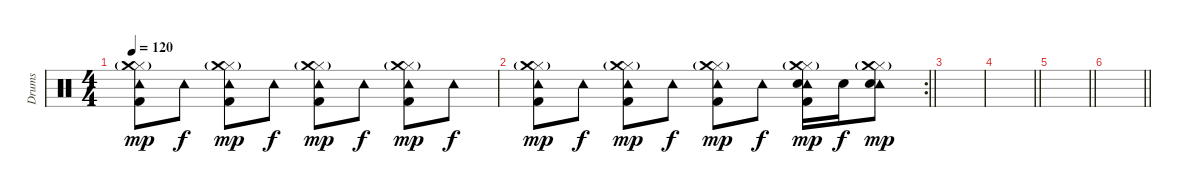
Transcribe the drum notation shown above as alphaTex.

\track ("Drums" "Drums") {instrument percussion}
\staff {score}
\articulation defaults
\ts (4 4)
\tempo 120
\clef neutral
\ks c
("Hi-Hat (closed)" "Tambourine (hit)" "Crash medium (hit)"{g} "Kick (hit) 2").8{dy mp} "Tambourine (hit)".8{dy f} ("Hi-Hat (closed)" "Tambourine (hit)" "Crash medium (hit)"{g} "Kick (hit) 2").8{dy mp} "Tambourine (hit)".8{dy f} ("Hi-Hat (closed)" "Tambourine (hit)" "Crash medium (hit)"{g} "Kick (hit) 2").8{dy mp} "Tambourine (hit)".8{dy f} ("Hi-Hat (closed)" "Tambourine (hit)" "Crash medium (hit)"{g} "Kick (hit) 2").8{dy mp} "Tambourine (hit)".8{dy f} |
\rc 2
\barLineRight lightlight
("Hi-Hat (closed)" "Tambourine (hit)" "Crash medium (hit)"{g} "Kick (hit) 2").8{dy mp} "Tambourine (hit)".8{dy f} ("Hi-Hat (closed)" "Tambourine (hit)" "Crash medium (hit)"{g} "Kick (hit) 2").8{dy mp} "Tambourine (hit)".8{dy f} ("Hi-Hat (closed)" "Tambourine (hit)" "Crash medium (hit)"{g} "Kick (hit) 2").8{dy mp} "Tambourine (hit)".8{dy f} ("Hi-Hat (closed)" "Tambourine (hit)" "Crash medium (hit)"{g} "Snare (hit) 2" "Kick (hit) 2").16{dy mp} "Snare (hit) 2".16{dy f} ("Hi-Hat (closed)" "Tambourine (hit)" "Crash medium (hit)"{g} "Snare (hit) 2").8{dy mp} |
|
\barLineRight lightlight
|
\barLineRight lightlight
|
\barLineRight lightlight
